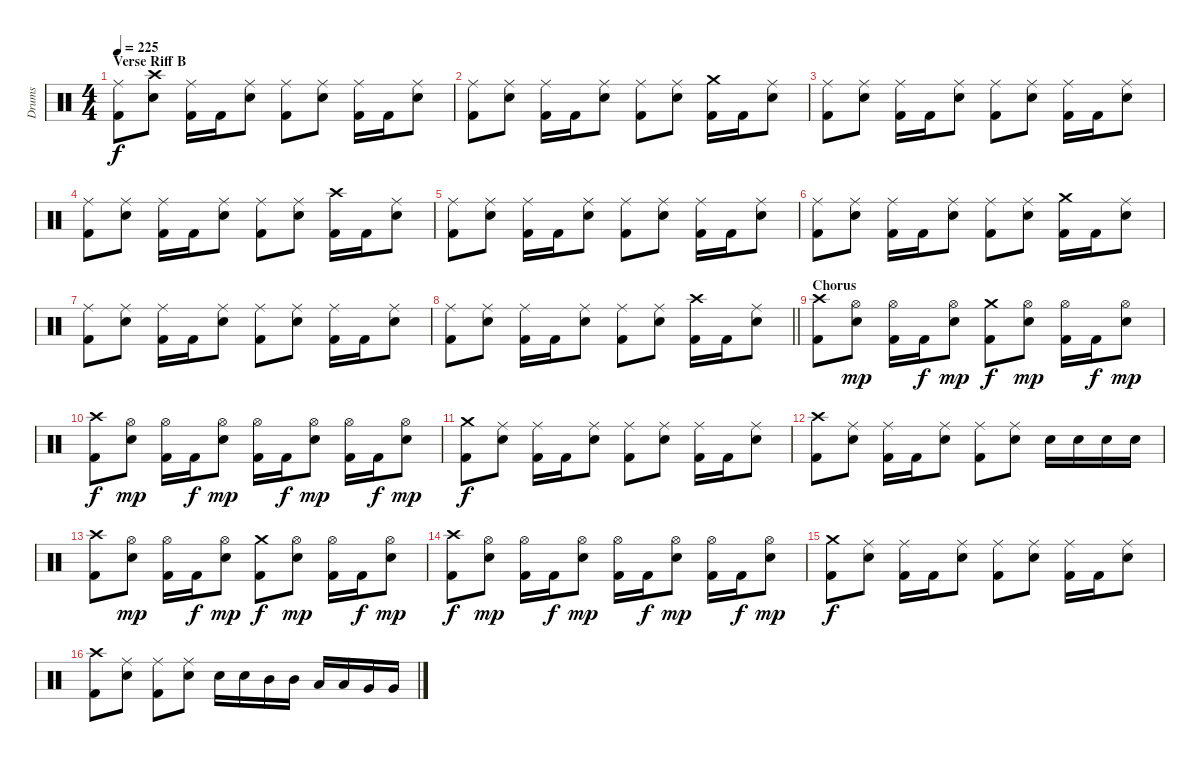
\track ("Drums" "Drums") {instrument percussion}
\staff {score}
\articulation defaults
\ts (4 4)
\section ("" "Verse Riff B")
\tempo 225
\clef neutral
\ks c
("Ride (middle)" "Kick (hit) 2").8{dy f} ("Crash high (hit)" "Snare (hit) 2").8 ("Ride (middle)" "Kick (hit) 2").16 "Kick (hit) 2".16 ("Ride (middle)" "Snare (hit) 2").8 ("Ride (middle)" "Kick (hit) 2").8 ("Ride (middle)" "Snare (hit) 2").8 ("Ride (middle)" "Kick (hit) 2").16 "Kick (hit) 2".16 ("Ride (middle)" "Snare (hit) 2").8 |
("Ride (middle)" "Kick (hit) 2").8 ("Ride (middle)" "Snare (hit) 2").8 ("Ride (middle)" "Kick (hit) 2").16 "Kick (hit) 2".16 ("Ride (middle)" "Snare (hit) 2").8 ("Ride (middle)" "Kick (hit) 2").8 ("Ride (middle)" "Snare (hit) 2").8 ("Crash medium (hit)" "Kick (hit) 2").16 "Kick (hit) 2".16 ("Ride (middle)" "Snare (hit) 2").8 |
("Ride (middle)" "Kick (hit) 2").8 ("Ride (middle)" "Snare (hit) 2").8 ("Ride (middle)" "Kick (hit) 2").16 "Kick (hit) 2".16 ("Ride (middle)" "Snare (hit) 2").8 ("Ride (middle)" "Kick (hit) 2").8 ("Ride (middle)" "Snare (hit) 2").8 ("Ride (middle)" "Kick (hit) 2").16 "Kick (hit) 2".16 ("Ride (middle)" "Snare (hit) 2").8 |
("Ride (middle)" "Kick (hit) 2").8 ("Ride (middle)" "Snare (hit) 2").8 ("Ride (middle)" "Kick (hit) 2").16 "Kick (hit) 2".16 ("Ride (middle)" "Snare (hit) 2").8 ("Ride (middle)" "Kick (hit) 2").8 ("Ride (middle)" "Snare (hit) 2").8 ("Crash high (hit)" "Kick (hit) 2").16 "Kick (hit) 2".16 ("Ride (middle)" "Snare (hit) 2").8 |
("Ride (middle)" "Kick (hit) 2").8 ("Ride (middle)" "Snare (hit) 2").8 ("Ride (middle)" "Kick (hit) 2").16 "Kick (hit) 2".16 ("Ride (middle)" "Snare (hit) 2").8 ("Ride (middle)" "Kick (hit) 2").8 ("Ride (middle)" "Snare (hit) 2").8 ("Ride (middle)" "Kick (hit) 2").16 "Kick (hit) 2".16 ("Ride (middle)" "Snare (hit) 2").8 |
("Ride (middle)" "Kick (hit) 2").8 ("Ride (middle)" "Snare (hit) 2").8 ("Ride (middle)" "Kick (hit) 2").16 "Kick (hit) 2".16 ("Ride (middle)" "Snare (hit) 2").8 ("Ride (middle)" "Kick (hit) 2").8 ("Ride (middle)" "Snare (hit) 2").8 ("Crash medium (hit)" "Kick (hit) 2").16 "Kick (hit) 2".16 ("Ride (middle)" "Snare (hit) 2").8 |
("Ride (middle)" "Kick (hit) 2").8 ("Ride (middle)" "Snare (hit) 2").8 ("Ride (middle)" "Kick (hit) 2").16 "Kick (hit) 2".16 ("Ride (middle)" "Snare (hit) 2").8 ("Ride (middle)" "Kick (hit) 2").8 ("Ride (middle)" "Snare (hit) 2").8 ("Ride (middle)" "Kick (hit) 2").16 "Kick (hit) 2".16 ("Ride (middle)" "Snare (hit) 2").8 |
\barLineRight lightlight
("Ride (middle)" "Kick (hit) 2").8 ("Ride (middle)" "Snare (hit) 2").8 ("Ride (middle)" "Kick (hit) 2").16 "Kick (hit) 2".16 ("Ride (middle)" "Snare (hit) 2").8 ("Ride (middle)" "Kick (hit) 2").8 ("Ride (middle)" "Snare (hit) 2").8 ("Crash high (hit)" "Kick (hit) 2").16 "Kick (hit) 2".16 ("Ride (middle)" "Snare (hit) 2").8 |
\section ("" "Chorus")
("Crash high (hit)" "Kick (hit) 2").8 ("Hi-Hat (open)" "Snare (hit) 2").8{dy mp} ("Hi-Hat (open)" "Kick (hit) 2").16 "Kick (hit) 2".16{dy f} ("Hi-Hat (open)" "Snare (hit) 2").8{dy mp} ("Crash medium (hit)" "Kick (hit) 2").8{dy f} ("Hi-Hat (open)" "Snare (hit) 2").8{dy mp} ("Hi-Hat (open)" "Kick (hit) 2").16 "Kick (hit) 2".16{dy f} ("Hi-Hat (open)" "Snare (hit) 2").8{dy mp} |
("Crash high (hit)" "Kick (hit) 2").8{dy f} ("Hi-Hat (open)" "Snare (hit) 2").8{dy mp} ("Hi-Hat (open)" "Kick (hit) 2").16 "Kick (hit) 2".16{dy f} ("Hi-Hat (open)" "Snare (hit) 2").8{dy mp} ("Hi-Hat (open)" "Kick (hit) 2").16 "Kick (hit) 2".16{dy f} ("Hi-Hat (open)" "Snare (hit) 2").8{dy mp} ("Hi-Hat (open)" "Kick (hit) 2").16 "Kick (hit) 2".16{dy f} ("Hi-Hat (open)" "Snare (hit) 2").8{dy mp} |
("Crash medium (hit)" "Kick (hit) 2").8{dy f} ("Ride (middle)" "Snare (hit) 2").8 ("Ride (middle)" "Kick (hit) 2").16 "Kick (hit) 2".16 ("Ride (middle)" "Snare (hit) 2").8 ("Ride (middle)" "Kick (hit) 2").8 ("Ride (middle)" "Snare (hit) 2").8 ("Ride (middle)" "Kick (hit) 2").16 "Kick (hit) 2".16 ("Ride (middle)" "Snare (hit) 2").8 |
("Crash high (hit)" "Kick (hit) 2").8 ("Ride (middle)" "Snare (hit) 2").8 ("Ride (middle)" "Kick (hit) 2").16 "Kick (hit) 2".16 ("Ride (middle)" "Snare (hit) 2").8 ("Ride (middle)" "Kick (hit) 2").8 ("Ride (middle)" "Snare (hit) 2").8 "Snare (hit) 2".16 "Snare (hit) 2".16 "Snare (hit) 2".16 "Snare (hit) 2".16 |
("Crash high (hit)" "Kick (hit) 2").8 ("Hi-Hat (open)" "Snare (hit) 2").8{dy mp} ("Hi-Hat (open)" "Kick (hit) 2").16 "Kick (hit) 2".16{dy f} ("Hi-Hat (open)" "Snare (hit) 2").8{dy mp} ("Crash medium (hit)" "Kick (hit) 2").8{dy f} ("Hi-Hat (open)" "Snare (hit) 2").8{dy mp} ("Hi-Hat (open)" "Kick (hit) 2").16 "Kick (hit) 2".16{dy f} ("Hi-Hat (open)" "Snare (hit) 2").8{dy mp} |
("Crash high (hit)" "Kick (hit) 2").8{dy f} ("Hi-Hat (open)" "Snare (hit) 2").8{dy mp} ("Hi-Hat (open)" "Kick (hit) 2").16 "Kick (hit) 2".16{dy f} ("Hi-Hat (open)" "Snare (hit) 2").8{dy mp} ("Hi-Hat (open)" "Kick (hit) 2").16 "Kick (hit) 2".16{dy f} ("Hi-Hat (open)" "Snare (hit) 2").8{dy mp} ("Hi-Hat (open)" "Kick (hit) 2").16 "Kick (hit) 2".16{dy f} ("Hi-Hat (open)" "Snare (hit) 2").8{dy mp} |
("Crash medium (hit)" "Kick (hit) 2").8{dy f} ("Ride (middle)" "Snare (hit) 2").8 ("Ride (middle)" "Kick (hit) 2").16 "Kick (hit) 2".16 ("Ride (middle)" "Snare (hit) 2").8 ("Ride (middle)" "Kick (hit) 2").8 ("Ride (middle)" "Snare (hit) 2").8 ("Ride (middle)" "Kick (hit) 2").16 "Kick (hit) 2".16 ("Ride (middle)" "Snare (hit) 2").8 |
("Crash high (hit)" "Kick (hit) 2").8 ("Ride (middle)" "Snare (hit) 2").8 ("Ride (middle)" "Kick (hit) 2").8 ("Ride (middle)" "Snare (hit) 2").8 "Snare (hit) 2".16 "Snare (hit) 2".16 "Mid Tom (hit)".16 "Mid Tom (hit)".16 "Low Tom (hit)".16 "Low Tom (hit)".16 "Very Low Tom (hit)".16 "Very Low Tom (hit)".16
